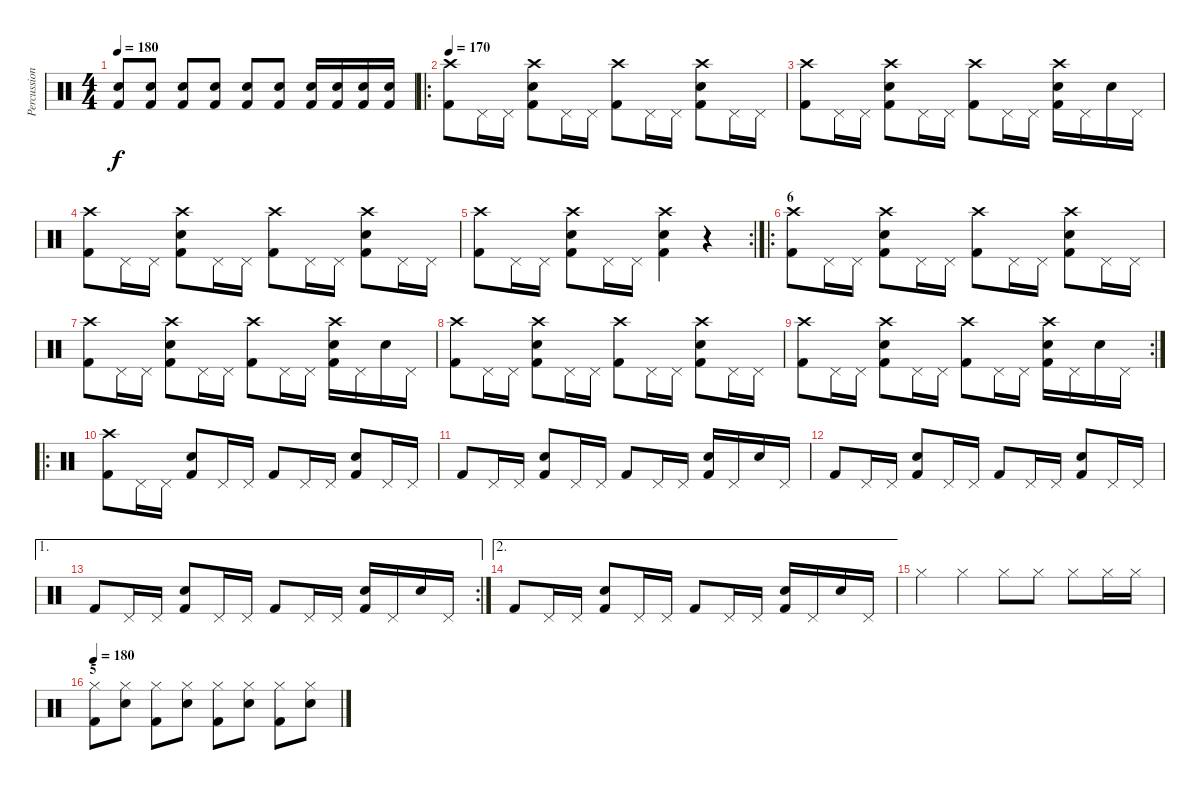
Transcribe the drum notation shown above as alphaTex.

\track ("Percussions" "Percussion") {instrument percussion}
\staff {score}
\articulation defaults
\ts (4 4)
\tempo 180
\clef neutral
\ks c
("Snare (hit) 2" "Kick (hit) 2").8{dy f} ("Snare (hit) 2" "Kick (hit) 2").8 ("Snare (hit) 2" "Kick (hit) 2").8 ("Snare (hit) 2" "Kick (hit) 2").8 ("Snare (hit) 2" "Kick (hit) 2").8 ("Snare (hit) 2" "Kick (hit) 2").8 ("Snare (hit) 2" "Kick (hit) 2").16 ("Snare (hit) 2" "Kick (hit) 2").16 ("Snare (hit) 2" "Kick (hit) 2").16 ("Snare (hit) 2" "Kick (hit) 2").16 |
\ro
\tempo 170
("Crash high (hit)" "Kick (hit) 2").8 "Pedal Hi-Hat (hit)".16 "Pedal Hi-Hat (hit)".16 ("Crash high (hit)" "Snare (hit) 2" "Kick (hit) 2").8 "Pedal Hi-Hat (hit)".16 "Pedal Hi-Hat (hit)".16 ("Crash high (hit)" "Kick (hit) 2").8 "Pedal Hi-Hat (hit)".16 "Pedal Hi-Hat (hit)".16 ("Crash high (hit)" "Snare (hit) 2" "Kick (hit) 2").8 "Pedal Hi-Hat (hit)".16 "Pedal Hi-Hat (hit)".16 |
("Crash high (hit)" "Kick (hit) 2").8 "Pedal Hi-Hat (hit)".16 "Pedal Hi-Hat (hit)".16 ("Crash high (hit)" "Snare (hit) 2" "Kick (hit) 2").8 "Pedal Hi-Hat (hit)".16 "Pedal Hi-Hat (hit)".16 ("Crash high (hit)" "Kick (hit) 2").8 "Pedal Hi-Hat (hit)".16 "Pedal Hi-Hat (hit)".16 ("Crash high (hit)" "Snare (hit) 2" "Kick (hit) 2").16 "Pedal Hi-Hat (hit)".16 "Snare (hit) 2".16 "Pedal Hi-Hat (hit)".16 |
("Crash high (hit)" "Kick (hit) 2").8 "Pedal Hi-Hat (hit)".16 "Pedal Hi-Hat (hit)".16 ("Crash high (hit)" "Snare (hit) 2" "Kick (hit) 2").8 "Pedal Hi-Hat (hit)".16 "Pedal Hi-Hat (hit)".16 ("Crash high (hit)" "Kick (hit) 2").8 "Pedal Hi-Hat (hit)".16 "Pedal Hi-Hat (hit)".16 ("Crash high (hit)" "Snare (hit) 2" "Kick (hit) 2").8 "Pedal Hi-Hat (hit)".16 "Pedal Hi-Hat (hit)".16 |
\rc 2
("Crash high (hit)" "Kick (hit) 2").8 "Pedal Hi-Hat (hit)".16 "Pedal Hi-Hat (hit)".16 ("Crash high (hit)" "Snare (hit) 2" "Kick (hit) 2").8 "Pedal Hi-Hat (hit)".16 "Pedal Hi-Hat (hit)".16 ("Crash high (hit)" "Snare (hit) 2" "Kick (hit) 2").4 r.4 |
\ro
\section ("" "6")
("Crash high (hit)" "Kick (hit) 2").8 "Pedal Hi-Hat (hit)".16 "Pedal Hi-Hat (hit)".16 ("Crash high (hit)" "Snare (hit) 2" "Kick (hit) 2").8 "Pedal Hi-Hat (hit)".16 "Pedal Hi-Hat (hit)".16 ("Crash high (hit)" "Kick (hit) 2").8 "Pedal Hi-Hat (hit)".16 "Pedal Hi-Hat (hit)".16 ("Crash high (hit)" "Snare (hit) 2" "Kick (hit) 2").8 "Pedal Hi-Hat (hit)".16 "Pedal Hi-Hat (hit)".16 |
("Crash high (hit)" "Kick (hit) 2").8 "Pedal Hi-Hat (hit)".16 "Pedal Hi-Hat (hit)".16 ("Crash high (hit)" "Snare (hit) 2" "Kick (hit) 2").8 "Pedal Hi-Hat (hit)".16 "Pedal Hi-Hat (hit)".16 ("Crash high (hit)" "Kick (hit) 2").8 "Pedal Hi-Hat (hit)".16 "Pedal Hi-Hat (hit)".16 ("Crash high (hit)" "Snare (hit) 2" "Kick (hit) 2").16 "Pedal Hi-Hat (hit)".16 "Snare (hit) 2".16 "Pedal Hi-Hat (hit)".16 |
("Crash high (hit)" "Kick (hit) 2").8 "Pedal Hi-Hat (hit)".16 "Pedal Hi-Hat (hit)".16 ("Crash high (hit)" "Snare (hit) 2" "Kick (hit) 2").8 "Pedal Hi-Hat (hit)".16 "Pedal Hi-Hat (hit)".16 ("Crash high (hit)" "Kick (hit) 2").8 "Pedal Hi-Hat (hit)".16 "Pedal Hi-Hat (hit)".16 ("Crash high (hit)" "Snare (hit) 2" "Kick (hit) 2").8 "Pedal Hi-Hat (hit)".16 "Pedal Hi-Hat (hit)".16 |
\rc 2
("Crash high (hit)" "Kick (hit) 2").8 "Pedal Hi-Hat (hit)".16 "Pedal Hi-Hat (hit)".16 ("Crash high (hit)" "Snare (hit) 2" "Kick (hit) 2").8 "Pedal Hi-Hat (hit)".16 "Pedal Hi-Hat (hit)".16 ("Crash high (hit)" "Kick (hit) 2").8 "Pedal Hi-Hat (hit)".16 "Pedal Hi-Hat (hit)".16 ("Crash high (hit)" "Snare (hit) 2" "Kick (hit) 2").16 "Pedal Hi-Hat (hit)".16 "Snare (hit) 2".16 "Pedal Hi-Hat (hit)".16 |
\ro
("Crash high (hit)" "Kick (hit) 2").8 "Pedal Hi-Hat (hit)".16 "Pedal Hi-Hat (hit)".16 ("Snare (hit) 2" "Kick (hit) 2").8 "Pedal Hi-Hat (hit)".16 "Pedal Hi-Hat (hit)".16 "Kick (hit) 2".8 "Pedal Hi-Hat (hit)".16 "Pedal Hi-Hat (hit)".16 ("Snare (hit) 2" "Kick (hit) 2").8 "Pedal Hi-Hat (hit)".16 "Pedal Hi-Hat (hit)".16 |
"Kick (hit) 2".8 "Pedal Hi-Hat (hit)".16 "Pedal Hi-Hat (hit)".16 ("Snare (hit) 2" "Kick (hit) 2").8 "Pedal Hi-Hat (hit)".16 "Pedal Hi-Hat (hit)".16 "Kick (hit) 2".8 "Pedal Hi-Hat (hit)".16 "Pedal Hi-Hat (hit)".16 ("Snare (hit) 2" "Kick (hit) 2").16 "Pedal Hi-Hat (hit)".16 "Snare (hit) 2".16 "Pedal Hi-Hat (hit)".16 |
"Kick (hit) 2".8 "Pedal Hi-Hat (hit)".16 "Pedal Hi-Hat (hit)".16 ("Snare (hit) 2" "Kick (hit) 2").8 "Pedal Hi-Hat (hit)".16 "Pedal Hi-Hat (hit)".16 "Kick (hit) 2".8 "Pedal Hi-Hat (hit)".16 "Pedal Hi-Hat (hit)".16 ("Snare (hit) 2" "Kick (hit) 2").8 "Pedal Hi-Hat (hit)".16 "Pedal Hi-Hat (hit)".16 |
\ae 1
\rc 2 "Kick (hit) 2".8 "Pedal Hi-Hat (hit)".16 "Pedal Hi-Hat (hit)".16
("Snare (hit) 2" "Kick (hit) 2").8 "Pedal Hi-Hat (hit)".16 "Pedal Hi-Hat (hit)".16 "Kick (hit) 2".8 "Pedal Hi-Hat (hit)".16 "Pedal Hi-Hat (hit)".16 ("Snare (hit) 2" "Kick (hit) 2").16 "Pedal Hi-Hat (hit)".16 "Snare (hit) 2".16 "Pedal Hi-Hat (hit)".16 |
\ae 2 "Kick (hit) 2".8 "Pedal Hi-Hat (hit)".16 "Pedal Hi-Hat (hit)".16
("Snare (hit) 2" "Kick (hit) 2").8 "Pedal Hi-Hat (hit)".16 "Pedal Hi-Hat (hit)".16 "Kick (hit) 2".8 "Pedal Hi-Hat (hit)".16 "Pedal Hi-Hat (hit)".16 ("Snare (hit) 2" "Kick (hit) 2").16 "Pedal Hi-Hat (hit)".16 "Snare (hit) 2".16 "Pedal Hi-Hat (hit)".16 |
"Hi-Hat (closed)".4 "Hi-Hat (closed)".4 "Hi-Hat (closed)".8 "Hi-Hat (closed)".8 "Hi-Hat (closed)".8 "Hi-Hat (closed)".16 "Hi-Hat (closed)".16 |
\section ("" "5")
\tempo 180
("Hi-Hat (closed)" "Kick (hit) 2").8 ("Hi-Hat (closed)" "Snare (hit) 2").8 ("Hi-Hat (closed)" "Kick (hit) 2").8 ("Hi-Hat (closed)" "Snare (hit) 2").8 ("Hi-Hat (closed)" "Kick (hit) 2").8 ("Hi-Hat (closed)" "Snare (hit) 2").8 ("Hi-Hat (closed)" "Kick (hit) 2").8 ("Hi-Hat (closed)" "Snare (hit) 2").8
